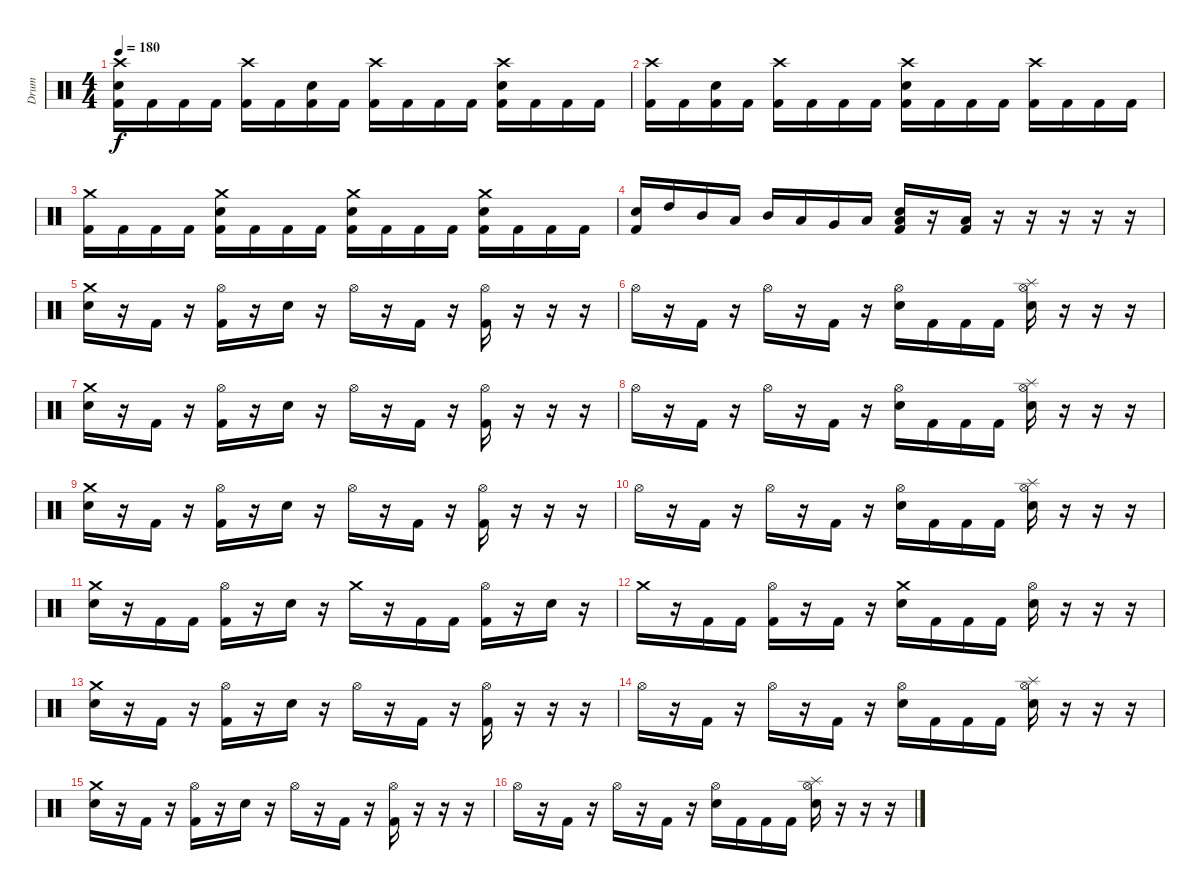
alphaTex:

\track ("Drum" "Drum") {instrument percussion}
\staff {score}
\articulation defaults
\ts (4 4)
\tempo 180
\clef neutral
\ks c
("Crash high (hit)" "Electric Snare (hit)" "Kick (hit) 2").16{dy f} "Kick (hit) 2".16 "Kick (hit) 2".16 "Kick (hit) 2".16 ("Crash high (hit)" "Kick (hit) 2").16 "Kick (hit) 2".16 ("Electric Snare (hit)" "Kick (hit) 2").16 "Kick (hit) 2".16 ("Crash high (hit)" "Kick (hit) 2").16 "Kick (hit) 2".16 "Kick (hit) 2".16 "Kick (hit) 2".16 ("Crash high (hit)" "Electric Snare (hit)" "Kick (hit) 2").16 "Kick (hit) 2".16 "Kick (hit) 2".16 "Kick (hit) 2".16 |
("Crash high (hit)" "Kick (hit) 2").16 "Kick (hit) 2".16 ("Electric Snare (hit)" "Kick (hit) 2").16 "Kick (hit) 2".16 ("Crash high (hit)" "Kick (hit) 2").16 "Kick (hit) 2".16 "Kick (hit) 2".16 "Kick (hit) 2".16 ("Crash high (hit)" "Electric Snare (hit)" "Kick (hit) 2").16 "Kick (hit) 2".16 "Kick (hit) 2".16 "Kick (hit) 2".16 ("Crash high (hit)" "Kick (hit) 2").16 "Kick (hit) 2".16 "Kick (hit) 2".16 "Kick (hit) 2".16 |
("Crash medium (hit)" "Kick (hit) 2").16 "Kick (hit) 2".16 "Kick (hit) 2".16 "Kick (hit) 2".16 ("Crash medium (hit)" "Electric Snare (hit)" "Kick (hit) 2").16 "Kick (hit) 2".16 "Kick (hit) 2".16 "Kick (hit) 2".16 ("Crash medium (hit)" "Electric Snare (hit)" "Kick (hit) 2").16 "Kick (hit) 2".16 "Kick (hit) 2".16 "Kick (hit) 2".16 ("Crash medium (hit)" "Electric Snare (hit)" "Kick (hit) 2").16 "Kick (hit) 2".16 "Kick (hit) 2".16 "Kick (hit) 2".16 |
("Electric Snare (hit)" "Kick (hit) 2").16 "High Tom (hit)".16 "Mid Tom (hit)".16 "Low Tom (hit)".16 "Mid Tom (hit)".16 "Low Tom (hit)".16 "Very Low Tom (hit)".16 "Low Floor Tom (hit)".16 ("Electric Snare (hit)" "Low Floor Tom (hit)" "Kick (hit) 2").16 r.16 ("Low Floor Tom (hit)" "Kick (hit) 2").16 r.16 r.16 r.16 r.16 r.16 |
("Crash medium (hit)" "Electric Snare (hit)").16 r.16 "Kick (hit) 2".16 r.16 ("Hi-Hat (open)" "Kick (hit) 2").16 r.16 "Electric Snare (hit)".16 r.16 "Hi-Hat (open)".16 r.16 "Kick (hit) 2".16 r.16 ("Hi-Hat (open)" "Kick (hit) 2").16 r.16 r.16 r.16 |
"Hi-Hat (open)".16 r.16 "Kick (hit) 2".16 r.16 "Hi-Hat (open)".16 r.16 "Kick (hit) 2".16 r.16 ("Hi-Hat (open)" "Electric Snare (hit)").16 "Kick (hit) 2".16 "Kick (hit) 2".16 "Kick (hit) 2".16 ("Hi-Hat (open)" "Splash (hit)" "Electric Snare (hit)").16 r.16 r.16 r.16 |
("Crash medium (hit)" "Electric Snare (hit)").16 r.16 "Kick (hit) 2".16 r.16 ("Hi-Hat (open)" "Kick (hit) 2").16 r.16 "Electric Snare (hit)".16 r.16 "Hi-Hat (open)".16 r.16 "Kick (hit) 2".16 r.16 ("Hi-Hat (open)" "Kick (hit) 2").16 r.16 r.16 r.16 |
"Hi-Hat (open)".16 r.16 "Kick (hit) 2".16 r.16 "Hi-Hat (open)".16 r.16 "Kick (hit) 2".16 r.16 ("Hi-Hat (open)" "Electric Snare (hit)").16 "Kick (hit) 2".16 "Kick (hit) 2".16 "Kick (hit) 2".16 ("Hi-Hat (open)" "Splash (hit)" "Electric Snare (hit)").16 r.16 r.16 r.16 |
("Crash medium (hit)" "Electric Snare (hit)").16 r.16 "Kick (hit) 2".16 r.16 ("Hi-Hat (open)" "Kick (hit) 2").16 r.16 "Electric Snare (hit)".16 r.16 "Hi-Hat (open)".16 r.16 "Kick (hit) 2".16 r.16 ("Hi-Hat (open)" "Kick (hit) 2").16 r.16 r.16 r.16 |
"Hi-Hat (open)".16 r.16 "Kick (hit) 2".16 r.16 "Hi-Hat (open)".16 r.16 "Kick (hit) 2".16 r.16 ("Hi-Hat (open)" "Electric Snare (hit)").16 "Kick (hit) 2".16 "Kick (hit) 2".16 "Kick (hit) 2".16 ("Hi-Hat (open)" "Splash (hit)" "Electric Snare (hit)").16 r.16 r.16 r.16 |
("Crash medium (hit)" "Electric Snare (hit)").16 r.16 "Kick (hit) 2".16 "Kick (hit) 2".16 ("Hi-Hat (open)" "Kick (hit) 2").16 r.16 "Electric Snare (hit)".16 r.16 "Crash medium (hit)".16 r.16 "Kick (hit) 2".16 "Kick (hit) 2".16 ("Hi-Hat (open)" "Kick (hit) 2").16 r.16 "Electric Snare (hit)".16 r.16 |
"Crash medium (hit)".16 r.16 "Kick (hit) 2".16 "Kick (hit) 2".16 ("Hi-Hat (open)" "Kick (hit) 2").16 r.16 "Kick (hit) 2".16 r.16 ("Crash medium (hit)" "Electric Snare (hit)").16 "Kick (hit) 2".16 "Kick (hit) 2".16 "Kick (hit) 2".16 ("Hi-Hat (open)" "Electric Snare (hit)").16 r.16 r.16 r.16 |
("Crash medium (hit)" "Electric Snare (hit)").16 r.16 "Kick (hit) 2".16 r.16 ("Hi-Hat (open)" "Kick (hit) 2").16 r.16 "Electric Snare (hit)".16 r.16 "Hi-Hat (open)".16 r.16 "Kick (hit) 2".16 r.16 ("Hi-Hat (open)" "Kick (hit) 2").16 r.16 r.16 r.16 |
"Hi-Hat (open)".16 r.16 "Kick (hit) 2".16 r.16 "Hi-Hat (open)".16 r.16 "Kick (hit) 2".16 r.16 ("Hi-Hat (open)" "Electric Snare (hit)").16 "Kick (hit) 2".16 "Kick (hit) 2".16 "Kick (hit) 2".16 ("Hi-Hat (open)" "Splash (hit)" "Electric Snare (hit)").16 r.16 r.16 r.16 |
("Crash medium (hit)" "Electric Snare (hit)").16 r.16 "Kick (hit) 2".16 r.16 ("Hi-Hat (open)" "Kick (hit) 2").16 r.16 "Electric Snare (hit)".16 r.16 "Hi-Hat (open)".16 r.16 "Kick (hit) 2".16 r.16 ("Hi-Hat (open)" "Kick (hit) 2").16 r.16 r.16 r.16 |
"Hi-Hat (open)".16 r.16 "Kick (hit) 2".16 r.16 "Hi-Hat (open)".16 r.16 "Kick (hit) 2".16 r.16 ("Hi-Hat (open)" "Electric Snare (hit)").16 "Kick (hit) 2".16 "Kick (hit) 2".16 "Kick (hit) 2".16 ("Hi-Hat (open)" "Splash (hit)" "Electric Snare (hit)").16 r.16 r.16 r.16
